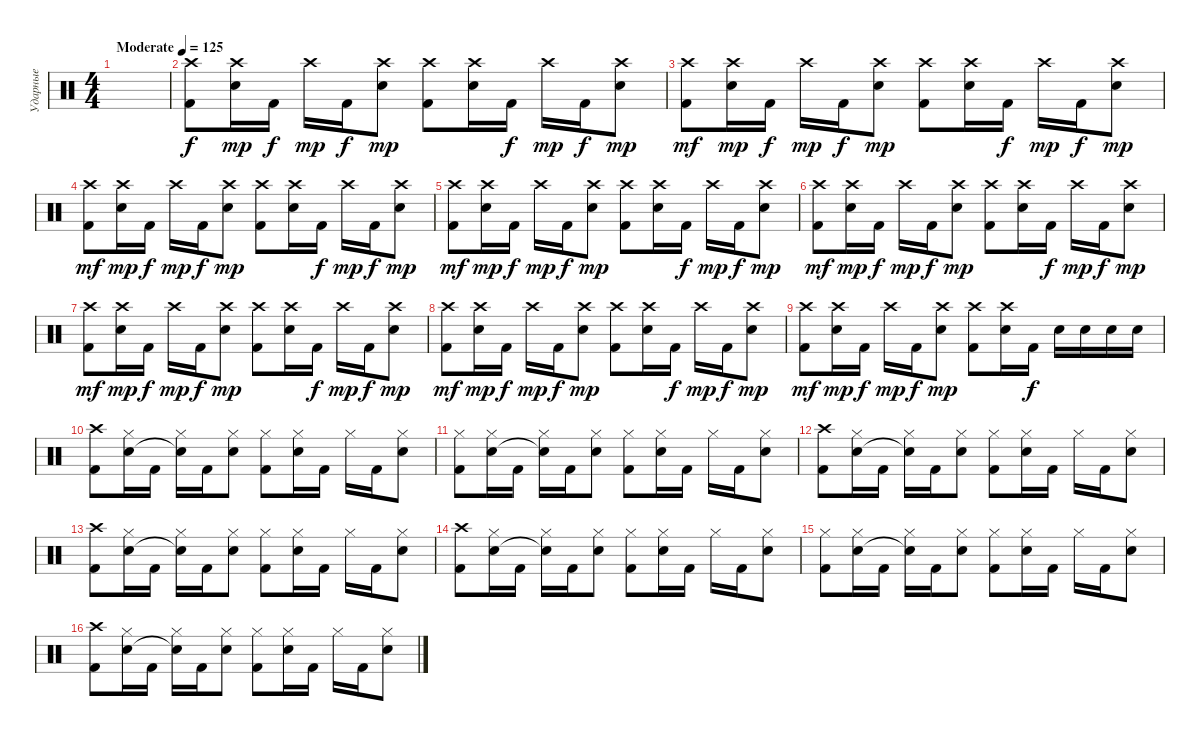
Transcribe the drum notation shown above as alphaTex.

\track ("Ударные" "Ударные") {instrument percussion}
\staff {score}
\articulation defaults
\ts (4 4)
\tempo (125 "Moderate")
\clef neutral
\ks c
|
("Crash high (hit)" "Kick (hit) 2").8 ("Crash high (hit)" "Electric Snare (hit)").16{dy mp} "Kick (hit) 2".16{dy f} "Crash high (hit)".16{dy mp} "Kick (hit) 2".16{dy f} ("Crash high (hit)" "Electric Snare (hit)").8{dy mp} ("Crash high (hit)" "Kick (hit) 2").8 ("Crash high (hit)" "Electric Snare (hit)").16 "Kick (hit) 2".16{dy f} "Crash high (hit)".16{dy mp} "Kick (hit) 2".16{dy f} ("Crash high (hit)" "Electric Snare (hit)").8{dy mp} |
("Crash high (hit)" "Kick (hit) 2").8{dy mf} ("Crash high (hit)" "Electric Snare (hit)").16{dy mp} "Kick (hit) 2".16{dy f} "Crash high (hit)".16{dy mp} "Kick (hit) 2".16{dy f} ("Crash high (hit)" "Electric Snare (hit)").8{dy mp} ("Crash high (hit)" "Kick (hit) 2").8 ("Crash high (hit)" "Electric Snare (hit)").16 "Kick (hit) 2".16{dy f} "Crash high (hit)".16{dy mp} "Kick (hit) 2".16{dy f} ("Crash high (hit)" "Electric Snare (hit)").8{dy mp} |
("Crash high (hit)" "Kick (hit) 2").8{dy mf} ("Crash high (hit)" "Electric Snare (hit)").16{dy mp} "Kick (hit) 2".16{dy f} "Crash high (hit)".16{dy mp} "Kick (hit) 2".16{dy f} ("Crash high (hit)" "Electric Snare (hit)").8{dy mp} ("Crash high (hit)" "Kick (hit) 2").8 ("Crash high (hit)" "Electric Snare (hit)").16 "Kick (hit) 2".16{dy f} "Crash high (hit)".16{dy mp} "Kick (hit) 2".16{dy f} ("Crash high (hit)" "Electric Snare (hit)").8{dy mp} |
("Crash high (hit)" "Kick (hit) 2").8{dy mf} ("Crash high (hit)" "Electric Snare (hit)").16{dy mp} "Kick (hit) 2".16{dy f} "Crash high (hit)".16{dy mp} "Kick (hit) 2".16{dy f} ("Crash high (hit)" "Electric Snare (hit)").8{dy mp} ("Crash high (hit)" "Kick (hit) 2").8 ("Crash high (hit)" "Electric Snare (hit)").16 "Kick (hit) 2".16{dy f} "Crash high (hit)".16{dy mp} "Kick (hit) 2".16{dy f} ("Crash high (hit)" "Electric Snare (hit)").8{dy mp} |
("Crash high (hit)" "Kick (hit) 2").8{dy mf} ("Crash high (hit)" "Electric Snare (hit)").16{dy mp} "Kick (hit) 2".16{dy f} "Crash high (hit)".16{dy mp} "Kick (hit) 2".16{dy f} ("Crash high (hit)" "Electric Snare (hit)").8{dy mp} ("Crash high (hit)" "Kick (hit) 2").8 ("Crash high (hit)" "Electric Snare (hit)").16 "Kick (hit) 2".16{dy f} "Crash high (hit)".16{dy mp} "Kick (hit) 2".16{dy f} ("Crash high (hit)" "Electric Snare (hit)").8{dy mp} |
("Crash high (hit)" "Kick (hit) 2").8{dy mf} ("Crash high (hit)" "Electric Snare (hit)").16{dy mp} "Kick (hit) 2".16{dy f} "Crash high (hit)".16{dy mp} "Kick (hit) 2".16{dy f} ("Crash high (hit)" "Electric Snare (hit)").8{dy mp} ("Crash high (hit)" "Kick (hit) 2").8 ("Crash high (hit)" "Electric Snare (hit)").16 "Kick (hit) 2".16{dy f} "Crash high (hit)".16{dy mp} "Kick (hit) 2".16{dy f} ("Crash high (hit)" "Electric Snare (hit)").8{dy mp} |
("Crash high (hit)" "Kick (hit) 2").8{dy mf} ("Crash high (hit)" "Electric Snare (hit)").16{dy mp} "Kick (hit) 2".16{dy f} "Crash high (hit)".16{dy mp} "Kick (hit) 2".16{dy f} ("Crash high (hit)" "Electric Snare (hit)").8{dy mp} ("Crash high (hit)" "Kick (hit) 2").8 ("Crash high (hit)" "Electric Snare (hit)").16 "Kick (hit) 2".16{dy f} "Crash high (hit)".16{dy mp} "Kick (hit) 2".16{dy f} ("Crash high (hit)" "Electric Snare (hit)").8{dy mp} |
("Crash high (hit)" "Kick (hit) 2").8{dy mf} ("Crash high (hit)" "Electric Snare (hit)").16{dy mp} "Kick (hit) 2".16{dy f} "Crash high (hit)".16{dy mp} "Kick (hit) 2".16{dy f} ("Crash high (hit)" "Electric Snare (hit)").8{dy mp} ("Crash high (hit)" "Kick (hit) 2").8 ("Crash high (hit)" "Electric Snare (hit)").16 "Kick (hit) 2".16{dy f} "Electric Snare (hit)".16 "Electric Snare (hit)".16 "Electric Snare (hit)".16 "Electric Snare (hit)".16 |
("Crash high (hit)" "Kick (hit) 2").8 ("Hi-Hat (closed)" "Electric Snare (hit)").16 "Kick (hit) 2".16 ("Hi-Hat (closed)" "Snare (hit)"{t}).16 "Kick (hit) 2".16 ("Hi-Hat (closed)" "Electric Snare (hit)").8 ("Hi-Hat (closed)" "Kick (hit) 2").8 ("Hi-Hat (closed)" "Electric Snare (hit)").16 "Kick (hit) 2".16 "Hi-Hat (closed)".16 "Kick (hit) 2".16 ("Hi-Hat (closed)" "Electric Snare (hit)").8 |
("Hi-Hat (closed)" "Kick (hit) 2").8 ("Hi-Hat (closed)" "Electric Snare (hit)").16 "Kick (hit) 2".16 ("Hi-Hat (closed)" "Snare (hit)"{t}).16 "Kick (hit) 2".16 ("Hi-Hat (closed)" "Electric Snare (hit)").8 ("Hi-Hat (closed)" "Kick (hit) 2").8 ("Hi-Hat (closed)" "Electric Snare (hit)").16 "Kick (hit) 2".16 "Hi-Hat (closed)".16 "Kick (hit) 2".16 ("Hi-Hat (closed)" "Electric Snare (hit)").8 |
("Crash high (hit)" "Kick (hit) 2").8 ("Hi-Hat (closed)" "Electric Snare (hit)").16 "Kick (hit) 2".16 ("Hi-Hat (closed)" "Snare (hit)"{t}).16 "Kick (hit) 2".16 ("Hi-Hat (closed)" "Electric Snare (hit)").8 ("Hi-Hat (closed)" "Kick (hit) 2").8 ("Hi-Hat (closed)" "Electric Snare (hit)").16 "Kick (hit) 2".16 "Hi-Hat (closed)".16 "Kick (hit) 2".16 ("Hi-Hat (closed)" "Electric Snare (hit)").8 |
("Crash high (hit)" "Kick (hit) 2").8 ("Hi-Hat (closed)" "Electric Snare (hit)").16 "Kick (hit) 2".16 ("Hi-Hat (closed)" "Snare (hit)"{t}).16 "Kick (hit) 2".16 ("Hi-Hat (closed)" "Electric Snare (hit)").8 ("Hi-Hat (closed)" "Kick (hit) 2").8 ("Hi-Hat (closed)" "Electric Snare (hit)").16 "Kick (hit) 2".16 "Hi-Hat (closed)".16 "Kick (hit) 2".16 ("Hi-Hat (closed)" "Electric Snare (hit)").8 |
("Crash high (hit)" "Kick (hit) 2").8 ("Hi-Hat (closed)" "Electric Snare (hit)").16 "Kick (hit) 2".16 ("Hi-Hat (closed)" "Snare (hit)"{t}).16 "Kick (hit) 2".16 ("Hi-Hat (closed)" "Electric Snare (hit)").8 ("Hi-Hat (closed)" "Kick (hit) 2").8 ("Hi-Hat (closed)" "Electric Snare (hit)").16 "Kick (hit) 2".16 "Hi-Hat (closed)".16 "Kick (hit) 2".16 ("Hi-Hat (closed)" "Electric Snare (hit)").8 |
("Hi-Hat (closed)" "Kick (hit) 2").8 ("Hi-Hat (closed)" "Electric Snare (hit)").16 "Kick (hit) 2".16 ("Hi-Hat (closed)" "Snare (hit)"{t}).16 "Kick (hit) 2".16 ("Hi-Hat (closed)" "Electric Snare (hit)").8 ("Hi-Hat (closed)" "Kick (hit) 2").8 ("Hi-Hat (closed)" "Electric Snare (hit)").16 "Kick (hit) 2".16 "Hi-Hat (closed)".16 "Kick (hit) 2".16 ("Hi-Hat (closed)" "Electric Snare (hit)").8 |
("Crash high (hit)" "Kick (hit) 2").8 ("Hi-Hat (closed)" "Electric Snare (hit)").16 "Kick (hit) 2".16 ("Hi-Hat (closed)" "Snare (hit)"{t}).16 "Kick (hit) 2".16 ("Hi-Hat (closed)" "Electric Snare (hit)").8 ("Hi-Hat (closed)" "Kick (hit) 2").8 ("Hi-Hat (closed)" "Electric Snare (hit)").16 "Kick (hit) 2".16 "Hi-Hat (closed)".16 "Kick (hit) 2".16 ("Hi-Hat (closed)" "Electric Snare (hit)").8
